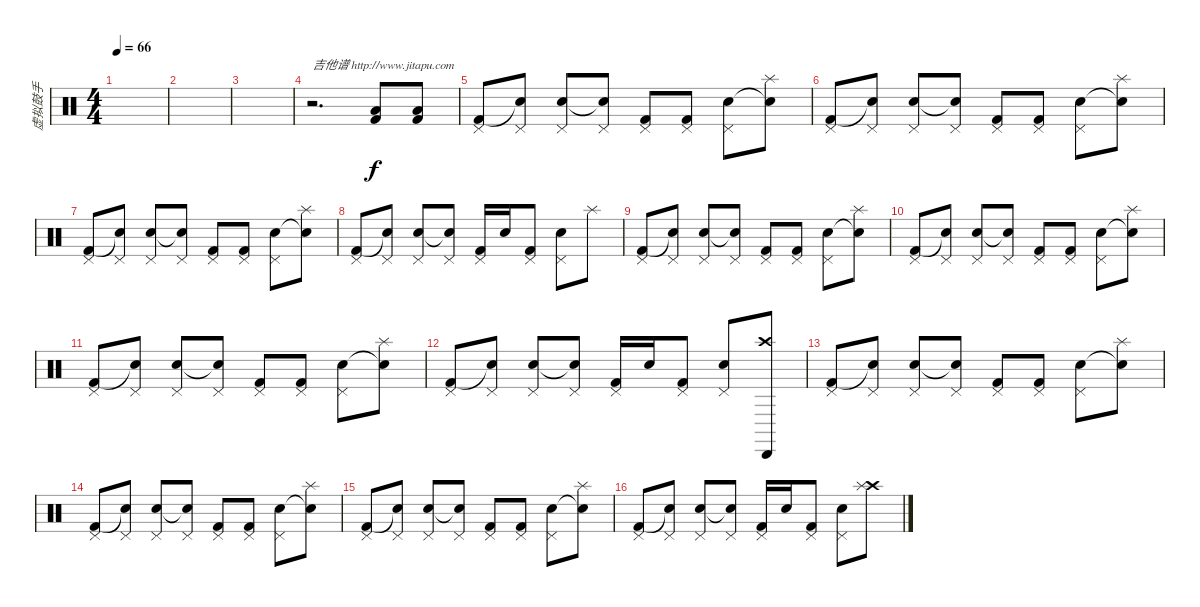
\track ("虚拟鼓手" "虚拟鼓手") {instrument percussion}
\staff {score}
\articulation defaults
\ts (4 4)
\tempo 66
\clef neutral
\ks c
|
|
|
r.2{d txt "吉他谱 http://www.jitapu.com"} ("Low Tom (hit)" "Kick (hit) 2").8 ("Low Tom (hit)" "Kick (hit) 2").8 |
("Pedal Hi-Hat (hit)" "Kick (hit) 2").8 ("Pedal Hi-Hat (hit)" "Snare (hit)"{t}).8 ("Pedal Hi-Hat (hit)" "Electric Snare (hit)").8 ("Pedal Hi-Hat (hit)" "Snare (hit)"{t}).8 ("Pedal Hi-Hat (hit)" "Kick (hit) 2").8 ("Pedal Hi-Hat (hit)" "Kick (hit) 2").8 ("Pedal Hi-Hat (hit)" "Electric Snare (hit)").8 ("Splash (hit)" "Snare (hit)"{t}).8 |
("Pedal Hi-Hat (hit)" "Kick (hit) 2").8 ("Pedal Hi-Hat (hit)" "Snare (hit)"{t}).8 ("Pedal Hi-Hat (hit)" "Electric Snare (hit)").8 ("Pedal Hi-Hat (hit)" "Snare (hit)"{t}).8 ("Pedal Hi-Hat (hit)" "Kick (hit) 2").8 ("Pedal Hi-Hat (hit)" "Kick (hit) 2").8 ("Pedal Hi-Hat (hit)" "Electric Snare (hit)").8 ("Splash (hit)" "Snare (hit)"{t}).8 |
("Pedal Hi-Hat (hit)" "Kick (hit) 2").8 ("Pedal Hi-Hat (hit)" "Snare (hit)"{t}).8 ("Pedal Hi-Hat (hit)" "Electric Snare (hit)").8 ("Pedal Hi-Hat (hit)" "Snare (hit)"{t}).8 ("Pedal Hi-Hat (hit)" "Kick (hit) 2").8 ("Pedal Hi-Hat (hit)" "Kick (hit) 2").8 ("Pedal Hi-Hat (hit)" "Electric Snare (hit)").8 ("Splash (hit)" "Snare (hit)"{t}).8 |
("Pedal Hi-Hat (hit)" "Kick (hit) 2").8 ("Pedal Hi-Hat (hit)" "Snare (hit)"{t}).8 ("Pedal Hi-Hat (hit)" "Electric Snare (hit)").8 ("Pedal Hi-Hat (hit)" "Snare (hit)"{t}).8 ("Pedal Hi-Hat (hit)" "Kick (hit) 2").16 "Electric Snare (hit)".16 ("Pedal Hi-Hat (hit)" "Kick (hit) 2").8 ("Pedal Hi-Hat (hit)" "Electric Snare (hit)").8 "Splash (hit)".8 |
("Pedal Hi-Hat (hit)" "Kick (hit) 2").8 ("Pedal Hi-Hat (hit)" "Snare (hit)"{t}).8 ("Pedal Hi-Hat (hit)" "Electric Snare (hit)").8 ("Pedal Hi-Hat (hit)" "Snare (hit)"{t}).8 ("Pedal Hi-Hat (hit)" "Kick (hit) 2").8 ("Pedal Hi-Hat (hit)" "Kick (hit) 2").8 ("Pedal Hi-Hat (hit)" "Electric Snare (hit)").8 ("Splash (hit)" "Snare (hit)"{t}).8 |
("Pedal Hi-Hat (hit)" "Kick (hit) 2").8 ("Pedal Hi-Hat (hit)" "Snare (hit)"{t}).8 ("Pedal Hi-Hat (hit)" "Electric Snare (hit)").8 ("Pedal Hi-Hat (hit)" "Snare (hit)"{t}).8 ("Pedal Hi-Hat (hit)" "Kick (hit) 2").8 ("Pedal Hi-Hat (hit)" "Kick (hit) 2").8 ("Pedal Hi-Hat (hit)" "Electric Snare (hit)").8 ("Splash (hit)" "Snare (hit)"{t}).8 |
("Pedal Hi-Hat (hit)" "Kick (hit) 2").8 ("Pedal Hi-Hat (hit)" "Snare (hit)"{t}).8 ("Pedal Hi-Hat (hit)" "Electric Snare (hit)").8 ("Pedal Hi-Hat (hit)" "Snare (hit)"{t}).8 ("Pedal Hi-Hat (hit)" "Kick (hit) 2").8 ("Pedal Hi-Hat (hit)" "Kick (hit) 2").8 ("Pedal Hi-Hat (hit)" "Electric Snare (hit)").8 ("Splash (hit)" "Snare (hit)"{t}).8 |
("Pedal Hi-Hat (hit)" "Kick (hit) 2").8 ("Pedal Hi-Hat (hit)" "Snare (hit)"{t}).8 ("Pedal Hi-Hat (hit)" "Electric Snare (hit)").8 ("Pedal Hi-Hat (hit)" "Snare (hit)"{t}).8 ("Pedal Hi-Hat (hit)" "Kick (hit) 2").16 "Electric Snare (hit)".16 ("Pedal Hi-Hat (hit)" "Kick (hit) 2").8 ("Pedal Hi-Hat (hit)" "Electric Snare (hit)").8 ("Crash high (hit)" "Cabasa (hit)").8 |
("Pedal Hi-Hat (hit)" "Kick (hit) 2").8 ("Pedal Hi-Hat (hit)" "Snare (hit)"{t}).8 ("Pedal Hi-Hat (hit)" "Electric Snare (hit)").8 ("Pedal Hi-Hat (hit)" "Snare (hit)"{t}).8 ("Pedal Hi-Hat (hit)" "Kick (hit) 2").8 ("Pedal Hi-Hat (hit)" "Kick (hit) 2").8 ("Pedal Hi-Hat (hit)" "Electric Snare (hit)").8 ("Splash (hit)" "Snare (hit)"{t}).8 |
("Pedal Hi-Hat (hit)" "Kick (hit) 2").8 ("Pedal Hi-Hat (hit)" "Snare (hit)"{t}).8 ("Pedal Hi-Hat (hit)" "Electric Snare (hit)").8 ("Pedal Hi-Hat (hit)" "Snare (hit)"{t}).8 ("Pedal Hi-Hat (hit)" "Kick (hit) 2").8 ("Pedal Hi-Hat (hit)" "Kick (hit) 2").8 ("Pedal Hi-Hat (hit)" "Electric Snare (hit)").8 ("Splash (hit)" "Snare (hit)"{t}).8 |
("Pedal Hi-Hat (hit)" "Kick (hit) 2").8 ("Pedal Hi-Hat (hit)" "Snare (hit)"{t}).8 ("Pedal Hi-Hat (hit)" "Electric Snare (hit)").8 ("Pedal Hi-Hat (hit)" "Snare (hit)"{t}).8 ("Pedal Hi-Hat (hit)" "Kick (hit) 2").8 ("Pedal Hi-Hat (hit)" "Kick (hit) 2").8 ("Pedal Hi-Hat (hit)" "Electric Snare (hit)").8 ("Splash (hit)" "Snare (hit)"{t}).8 |
("Pedal Hi-Hat (hit)" "Kick (hit) 2").8 ("Pedal Hi-Hat (hit)" "Snare (hit)"{t}).8 ("Pedal Hi-Hat (hit)" "Electric Snare (hit)").8 ("Pedal Hi-Hat (hit)" "Snare (hit)"{t}).8 ("Pedal Hi-Hat (hit)" "Kick (hit) 2").16 "Electric Snare (hit)".16 ("Pedal Hi-Hat (hit)" "Kick (hit) 2").8 ("Pedal Hi-Hat (hit)" "Electric Snare (hit)").8 ("Crash high (hit)" "Splash (hit)").8
